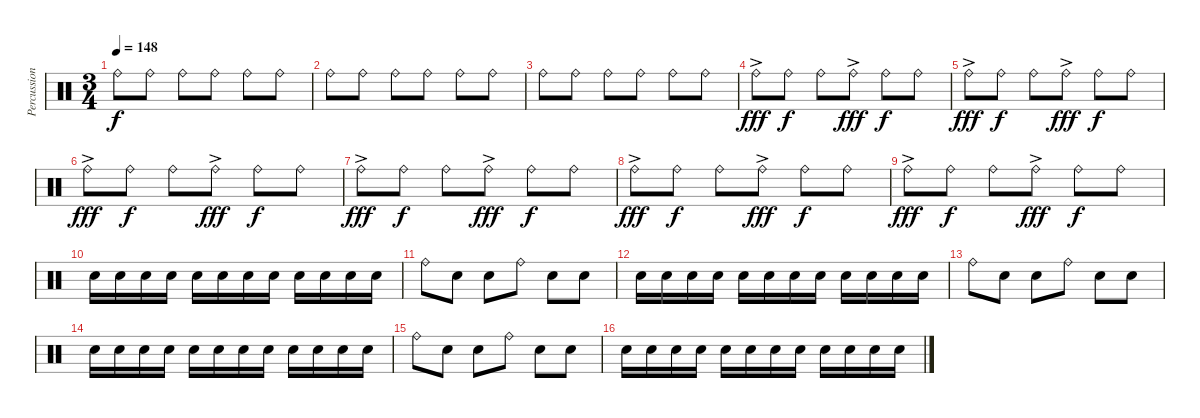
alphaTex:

\track ("Percussion" "Percussion") {instrument percussion}
\staff {score}
\articulation defaults
\ts (3 4)
\tempo 148
\clef neutral
\ks c "Ride (bell)".8{dy f} "Ride (bell)".8 "Ride (bell)".8 "Ride (bell)".8 "Ride (bell)".8 "Ride (bell)".8
|
"Ride (bell)".8 "Ride (bell)".8 "Ride (bell)".8 "Ride (bell)".8 "Ride (bell)".8 "Ride (bell)".8 |
"Ride (bell)".8 "Ride (bell)".8 "Ride (bell)".8 "Ride (bell)".8 "Ride (bell)".8 "Ride (bell)".8 |
"Ride (bell)"{ac}.8{dy fff} "Ride (bell)".8{dy f} "Ride (bell)".8 "Ride (bell)"{ac}.8{dy fff} "Ride (bell)".8{dy f} "Ride (bell)".8 |
"Ride (bell)"{ac}.8{dy fff} "Ride (bell)".8{dy f} "Ride (bell)".8 "Ride (bell)"{ac}.8{dy fff} "Ride (bell)".8{dy f} "Ride (bell)".8 |
"Ride (bell)"{ac}.8{dy fff} "Ride (bell)".8{dy f} "Ride (bell)".8 "Ride (bell)"{ac}.8{dy fff} "Ride (bell)".8{dy f} "Ride (bell)".8 |
"Ride (bell)"{ac}.8{dy fff} "Ride (bell)".8{dy f} "Ride (bell)".8 "Ride (bell)"{ac}.8{dy fff} "Ride (bell)".8{dy f} "Ride (bell)".8 |
"Ride (bell)"{ac}.8{dy fff} "Ride (bell)".8{dy f} "Ride (bell)".8 "Ride (bell)"{ac}.8{dy fff} "Ride (bell)".8{dy f} "Ride (bell)".8 |
"Ride (bell)"{ac}.8{dy fff} "Ride (bell)".8{dy f} "Ride (bell)".8 "Ride (bell)"{ac}.8{dy fff} "Ride (bell)".8{dy f} "Ride (bell)".8 |
"Electric Snare (hit)".16{volume 10} "Electric Snare (hit)".16{volume 16} "Electric Snare (hit)".16 "Electric Snare (hit)".16 "Electric Snare (hit)".16 "Electric Snare (hit)".16 "Electric Snare (hit)".16 "Electric Snare (hit)".16 "Electric Snare (hit)".16 "Electric Snare (hit)".16 "Electric Snare (hit)".16 "Electric Snare (hit)".16 |
"Ride (bell)".8 "Electric Snare (hit)".8 "Electric Snare (hit)".8 "Ride (bell)".8 "Electric Snare (hit)".8 "Electric Snare (hit)".8 |
"Electric Snare (hit)".16{volume 10} "Electric Snare (hit)".16{volume 16} "Electric Snare (hit)".16 "Electric Snare (hit)".16 "Electric Snare (hit)".16 "Electric Snare (hit)".16 "Electric Snare (hit)".16 "Electric Snare (hit)".16 "Electric Snare (hit)".16 "Electric Snare (hit)".16 "Electric Snare (hit)".16 "Electric Snare (hit)".16 |
"Ride (bell)".8 "Electric Snare (hit)".8 "Electric Snare (hit)".8 "Ride (bell)".8 "Electric Snare (hit)".8 "Electric Snare (hit)".8 |
"Electric Snare (hit)".16{volume 10} "Electric Snare (hit)".16{volume 16} "Electric Snare (hit)".16 "Electric Snare (hit)".16 "Electric Snare (hit)".16 "Electric Snare (hit)".16 "Electric Snare (hit)".16 "Electric Snare (hit)".16 "Electric Snare (hit)".16 "Electric Snare (hit)".16 "Electric Snare (hit)".16 "Electric Snare (hit)".16 |
"Ride (bell)".8 "Electric Snare (hit)".8 "Electric Snare (hit)".8 "Ride (bell)".8 "Electric Snare (hit)".8 "Electric Snare (hit)".8 |
"Electric Snare (hit)".16{volume 10} "Electric Snare (hit)".16{volume 16} "Electric Snare (hit)".16 "Electric Snare (hit)".16 "Electric Snare (hit)".16 "Electric Snare (hit)".16 "Electric Snare (hit)".16 "Electric Snare (hit)".16 "Electric Snare (hit)".16 "Electric Snare (hit)".16 "Electric Snare (hit)".16 "Electric Snare (hit)".16
